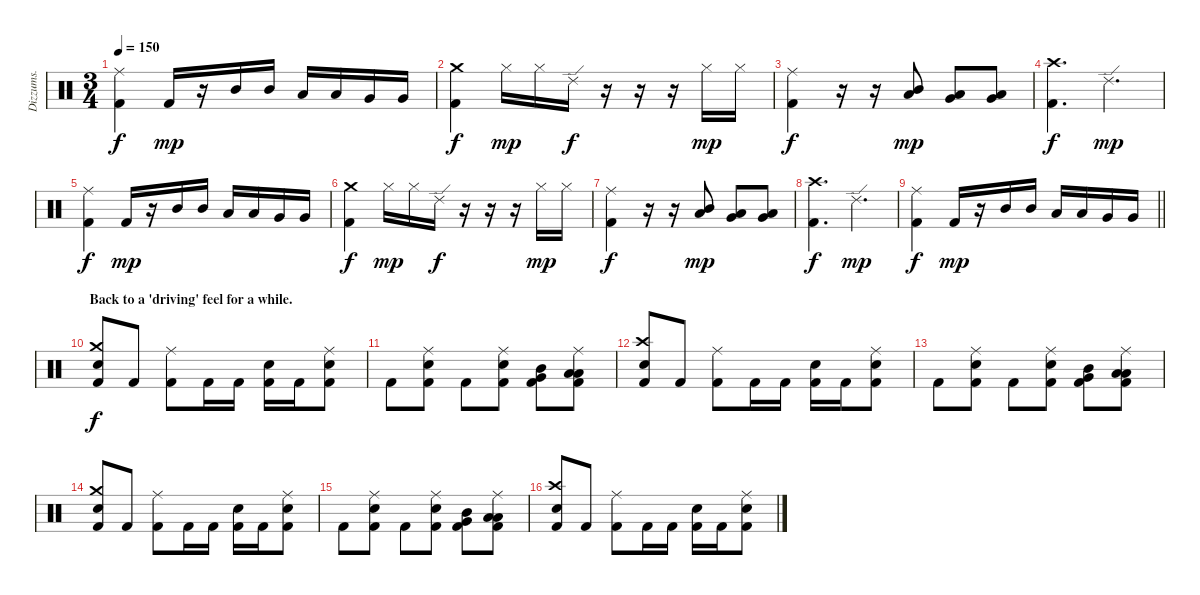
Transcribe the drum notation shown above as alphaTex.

\track ("Dizzums." "Dizzums.") {instrument percussion}
\staff {score}
\articulation defaults
\ts (3 4)
\tempo 150
\clef neutral
\ks c
("Ride (middle)" "Kick (hit) 2").4{dy f} "Kick (hit) 2".16{dy mp} r.16 "Mid Tom (hit)".16 "Mid Tom (hit)".16 "Low Tom (hit)".16 "Low Tom (hit)".16 "Very Low Tom (hit)".16 "Very Low Tom (hit)".16 |
("Crash medium (hit)" "Kick (hit) 2").4{dy f} "Hi-Hat (closed)".16{dy mp} "Hi-Hat (closed)".16 "Ride (edge) 2".16{dy f} r.16 r.16 r.16 "Hi-Hat (closed)".16{dy mp} "Hi-Hat (closed)".16 |
("Ride (middle)" "Kick (hit) 2").4{dy f} r.16 r.16 ("Mid Tom (hit)" "Low Tom (hit)").8{dy mp} ("Low Tom (hit)" "Very Low Tom (hit)").8 ("Very Low Tom (hit)" "Low Floor Tom (hit)").8 |
("Crash high (hit)" "Kick (hit) 2").4{d dy f} "Ride (edge) 2".4{d dy mp} |
("Ride (middle)" "Kick (hit) 2").4{dy f} "Kick (hit) 2".16{dy mp} r.16 "Mid Tom (hit)".16 "Mid Tom (hit)".16 "Low Tom (hit)".16 "Low Tom (hit)".16 "Very Low Tom (hit)".16 "Very Low Tom (hit)".16 |
("Crash medium (hit)" "Kick (hit) 2").4{dy f} "Hi-Hat (closed)".16{dy mp} "Hi-Hat (closed)".16 "Ride (edge) 2".16{dy f} r.16 r.16 r.16 "Hi-Hat (closed)".16{dy mp} "Hi-Hat (closed)".16 |
("Ride (middle)" "Kick (hit) 2").4{dy f} r.16 r.16 ("Mid Tom (hit)" "Low Tom (hit)").8{dy mp} ("Low Tom (hit)" "Very Low Tom (hit)").8 ("Very Low Tom (hit)" "Low Floor Tom (hit)").8 |
("Crash high (hit)" "Kick (hit) 2").4{d dy f} "Ride (edge) 2".4{d dy mp} |
\barLineRight lightlight
("Ride (middle)" "Kick (hit) 2").4{dy f} "Kick (hit) 2".16{dy mp} r.16 "Mid Tom (hit)".16 "Mid Tom (hit)".16 "Low Tom (hit)".16 "Low Tom (hit)".16 "Very Low Tom (hit)".16 "Very Low Tom (hit)".16 |
\section ("" "Back to a 'driving' feel for a while.")
("Crash medium (hit)" "Electric Snare (hit)" "Kick (hit) 2").8{dy f} "Kick (hit) 2".8 ("Ride (middle)" "Kick (hit) 2").8 "Kick (hit) 2".16 "Kick (hit) 2".16 ("Electric Snare (hit)" "Kick (hit) 2").16 "Kick (hit) 2".16 ("Ride (middle)" "Electric Snare (hit)" "Kick (hit) 2").8 |
"Kick (hit) 2".8 ("Ride (middle)" "Electric Snare (hit)" "Kick (hit) 2").8 "Kick (hit) 2".8 ("Ride (middle)" "Electric Snare (hit)" "Kick (hit) 2").8 ("Mid Tom (hit)" "Very Low Tom (hit)" "Kick (hit) 2").8 ("Ride (middle)" "Low Tom (hit)" "Low Floor Tom (hit)" "Kick (hit) 2").8 |
("Crash high (hit)" "Electric Snare (hit)" "Kick (hit) 2").8 "Kick (hit) 2".8 ("Ride (middle)" "Kick (hit) 2").8 "Kick (hit) 2".16 "Kick (hit) 2".16 ("Electric Snare (hit)" "Kick (hit) 2").16 "Kick (hit) 2".16 ("Ride (middle)" "Electric Snare (hit)" "Kick (hit) 2").8 |
"Kick (hit) 2".8 ("Ride (middle)" "Electric Snare (hit)" "Kick (hit) 2").8 "Kick (hit) 2".8 ("Ride (middle)" "Electric Snare (hit)" "Kick (hit) 2").8 ("Mid Tom (hit)" "Very Low Tom (hit)" "Kick (hit) 2").8 ("Ride (middle)" "Low Tom (hit)" "Low Floor Tom (hit)" "Kick (hit) 2").8 |
("Crash medium (hit)" "Electric Snare (hit)" "Kick (hit) 2").8 "Kick (hit) 2".8 ("Ride (middle)" "Kick (hit) 2").8 "Kick (hit) 2".16 "Kick (hit) 2".16 ("Electric Snare (hit)" "Kick (hit) 2").16 "Kick (hit) 2".16 ("Ride (middle)" "Electric Snare (hit)" "Kick (hit) 2").8 |
"Kick (hit) 2".8 ("Ride (middle)" "Electric Snare (hit)" "Kick (hit) 2").8 "Kick (hit) 2".8 ("Ride (middle)" "Electric Snare (hit)" "Kick (hit) 2").8 ("Mid Tom (hit)" "Very Low Tom (hit)" "Kick (hit) 2").8 ("Ride (middle)" "Low Tom (hit)" "Low Floor Tom (hit)" "Kick (hit) 2").8 |
("Crash high (hit)" "Electric Snare (hit)" "Kick (hit) 2").8 "Kick (hit) 2".8 ("Ride (middle)" "Kick (hit) 2").8 "Kick (hit) 2".16 "Kick (hit) 2".16 ("Electric Snare (hit)" "Kick (hit) 2").16 "Kick (hit) 2".16 ("Ride (middle)" "Electric Snare (hit)" "Kick (hit) 2").8
